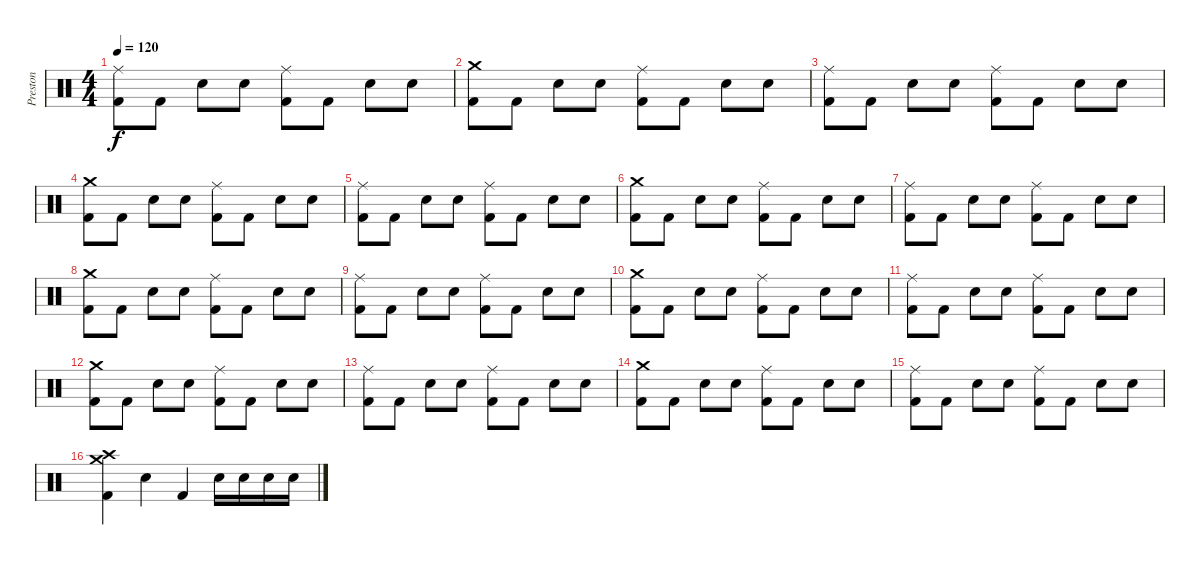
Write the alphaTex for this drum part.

\track ("Preston" "Preston") {instrument percussion}
\staff {score}
\articulation defaults
\ts (4 4)
\tempo 120
\clef neutral
\ks c
("Ride (middle)" "Kick (hit) 2").8{dy f} "Kick (hit) 2".8 "Electric Snare (hit)".8 "Electric Snare (hit)".8 ("Ride (middle)" "Kick (hit) 2").8 "Kick (hit) 2".8 "Electric Snare (hit)".8 "Electric Snare (hit)".8 |
("Crash medium (hit)" "Kick (hit) 2").8 "Kick (hit) 2".8 "Electric Snare (hit)".8 "Electric Snare (hit)".8 ("Ride (middle)" "Kick (hit) 2").8 "Kick (hit) 2".8 "Electric Snare (hit)".8 "Electric Snare (hit)".8 |
("Ride (middle)" "Kick (hit) 2").8 "Kick (hit) 2".8 "Electric Snare (hit)".8 "Electric Snare (hit)".8 ("Ride (middle)" "Kick (hit) 2").8 "Kick (hit) 2".8 "Electric Snare (hit)".8 "Electric Snare (hit)".8 |
("Crash medium (hit)" "Kick (hit) 2").8 "Kick (hit) 2".8 "Electric Snare (hit)".8 "Electric Snare (hit)".8 ("Ride (middle)" "Kick (hit) 2").8 "Kick (hit) 2".8 "Electric Snare (hit)".8 "Electric Snare (hit)".8 |
("Ride (middle)" "Kick (hit) 2").8 "Kick (hit) 2".8 "Electric Snare (hit)".8 "Electric Snare (hit)".8 ("Ride (middle)" "Kick (hit) 2").8 "Kick (hit) 2".8 "Electric Snare (hit)".8 "Electric Snare (hit)".8 |
("Crash medium (hit)" "Kick (hit) 2").8 "Kick (hit) 2".8 "Electric Snare (hit)".8 "Electric Snare (hit)".8 ("Ride (middle)" "Kick (hit) 2").8 "Kick (hit) 2".8 "Electric Snare (hit)".8 "Electric Snare (hit)".8 |
("Ride (middle)" "Kick (hit) 2").8 "Kick (hit) 2".8 "Electric Snare (hit)".8 "Electric Snare (hit)".8 ("Ride (middle)" "Kick (hit) 2").8 "Kick (hit) 2".8 "Electric Snare (hit)".8 "Electric Snare (hit)".8 |
("Crash medium (hit)" "Kick (hit) 2").8 "Kick (hit) 2".8 "Electric Snare (hit)".8 "Electric Snare (hit)".8 ("Ride (middle)" "Kick (hit) 2").8 "Kick (hit) 2".8 "Electric Snare (hit)".8 "Electric Snare (hit)".8 |
("Ride (middle)" "Kick (hit) 2").8 "Kick (hit) 2".8 "Electric Snare (hit)".8 "Electric Snare (hit)".8 ("Ride (middle)" "Kick (hit) 2").8 "Kick (hit) 2".8 "Electric Snare (hit)".8 "Electric Snare (hit)".8 |
("Crash medium (hit)" "Kick (hit) 2").8 "Kick (hit) 2".8 "Electric Snare (hit)".8 "Electric Snare (hit)".8 ("Ride (middle)" "Kick (hit) 2").8 "Kick (hit) 2".8 "Electric Snare (hit)".8 "Electric Snare (hit)".8 |
("Ride (middle)" "Kick (hit) 2").8 "Kick (hit) 2".8 "Electric Snare (hit)".8 "Electric Snare (hit)".8 ("Ride (middle)" "Kick (hit) 2").8 "Kick (hit) 2".8 "Electric Snare (hit)".8 "Electric Snare (hit)".8 |
("Crash medium (hit)" "Kick (hit) 2").8 "Kick (hit) 2".8 "Electric Snare (hit)".8 "Electric Snare (hit)".8 ("Ride (middle)" "Kick (hit) 2").8 "Kick (hit) 2".8 "Electric Snare (hit)".8 "Electric Snare (hit)".8 |
("Ride (middle)" "Kick (hit) 2").8 "Kick (hit) 2".8 "Electric Snare (hit)".8 "Electric Snare (hit)".8 ("Ride (middle)" "Kick (hit) 2").8 "Kick (hit) 2".8 "Electric Snare (hit)".8 "Electric Snare (hit)".8 |
("Crash medium (hit)" "Kick (hit) 2").8 "Kick (hit) 2".8 "Electric Snare (hit)".8 "Electric Snare (hit)".8 ("Ride (middle)" "Kick (hit) 2").8 "Kick (hit) 2".8 "Electric Snare (hit)".8 "Electric Snare (hit)".8 |
("Ride (middle)" "Kick (hit) 2").8 "Kick (hit) 2".8 "Electric Snare (hit)".8 "Electric Snare (hit)".8 ("Ride (middle)" "Kick (hit) 2").8 "Kick (hit) 2".8 "Electric Snare (hit)".8 "Electric Snare (hit)".8 |
("Crash medium (hit)" "Crash high (hit)" "Kick (hit) 2").4 "Electric Snare (hit)".4 "Kick (hit) 2".4 "Electric Snare (hit)".16 "Electric Snare (hit)".16 "Electric Snare (hit)".16 "Electric Snare (hit)".16
